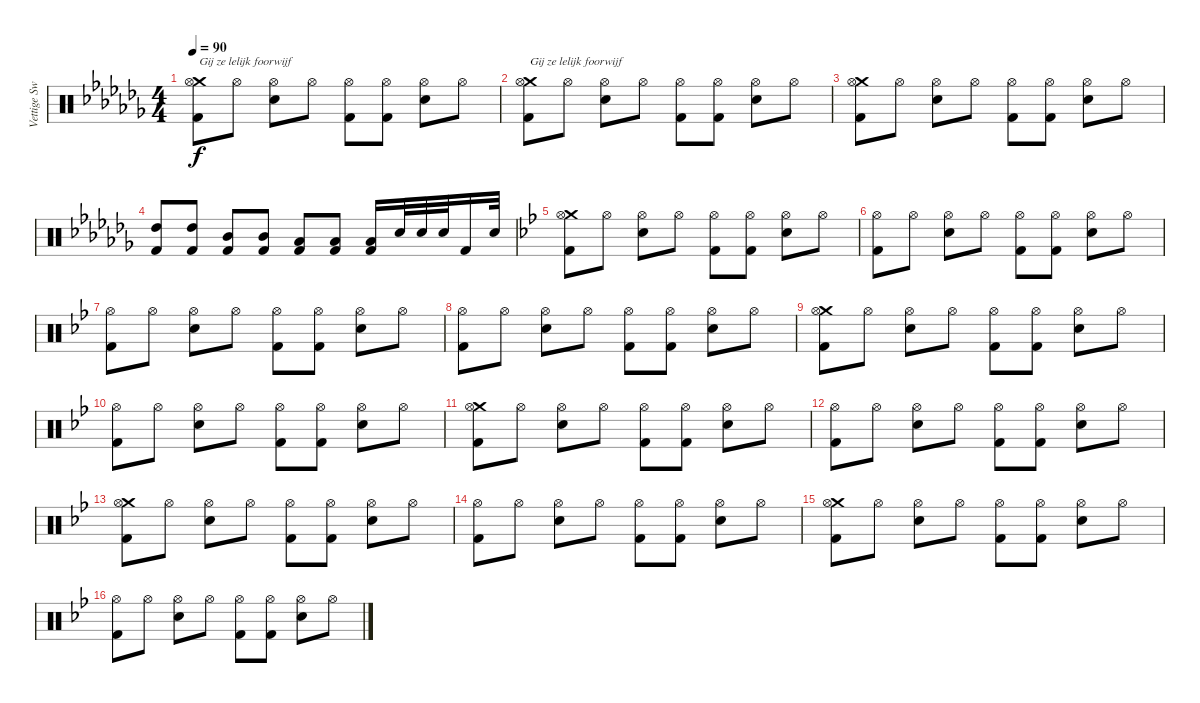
\track ("Vettige Swa" "Vettige Sw") {instrument percussion}
\staff {score}
\articulation defaults
\ts (4 4)
\tempo 90
\clef neutral
\ks abminor
("Kick (hit) 2" "Crash medium (hit)" "Hi-Hat (open)").8{txt "Gij ze lelijk foorwijf" dy f} "Hi-Hat (open)".8 ("Hi-Hat (open)" "Electric Snare (hit)").8 "Hi-Hat (open)".8 ("Hi-Hat (open)" "Kick (hit) 2").8 ("Hi-Hat (open)" "Kick (hit) 2").8 ("Hi-Hat (open)" "Electric Snare (hit)").8 "Hi-Hat (open)".8 |
("Kick (hit) 2" "Crash medium (hit)" "Hi-Hat (open)").8{txt "Gij ze lelijk foorwijf"} "Hi-Hat (open)".8 ("Hi-Hat (open)" "Electric Snare (hit)").8 "Hi-Hat (open)".8 ("Hi-Hat (open)" "Kick (hit) 2").8 ("Hi-Hat (open)" "Kick (hit) 2").8 ("Hi-Hat (open)" "Electric Snare (hit)").8 "Hi-Hat (open)".8 |
("Kick (hit) 2" "Crash medium (hit)" "Hi-Hat (open)").8 "Hi-Hat (open)".8 ("Hi-Hat (open)" "Electric Snare (hit)").8 "Hi-Hat (open)".8 ("Hi-Hat (open)" "Kick (hit) 2").8 ("Hi-Hat (open)" "Kick (hit) 2").8 ("Hi-Hat (open)" "Electric Snare (hit)").8 "Hi-Hat (open)".8 |
("Kick (hit) 2" "High Tom (hit)").8 ("Kick (hit) 2" "High Tom (hit)").8 ("Kick (hit) 2" "Mid Tom (hit)").8 ("Kick (hit) 2" "Mid Tom (hit)").8 ("Kick (hit) 2" "Low Tom (hit)").8 ("Kick (hit) 2" "Low Tom (hit)").8 ("Kick (hit) 2" "Low Floor Tom (hit)").16 "Electric Snare (hit)".32 "Electric Snare (hit)".32 "Electric Snare (hit)".32 "Kick (hit) 2".16 "Electric Snare (hit)".32 |
\ks gminor
("Kick (hit) 2" "Crash medium (hit)" "Hi-Hat (open)").8 "Hi-Hat (open)".8 ("Hi-Hat (open)" "Electric Snare (hit)").8 "Hi-Hat (open)".8 ("Hi-Hat (open)" "Kick (hit) 2").8 ("Hi-Hat (open)" "Kick (hit) 2").8 ("Hi-Hat (open)" "Electric Snare (hit)").8 "Hi-Hat (open)".8 |
("Kick (hit) 2" "Hi-Hat (open)").8 "Hi-Hat (open)".8 ("Hi-Hat (open)" "Electric Snare (hit)").8 "Hi-Hat (open)".8 ("Hi-Hat (open)" "Kick (hit) 2").8 ("Hi-Hat (open)" "Kick (hit) 2").8 ("Hi-Hat (open)" "Electric Snare (hit)").8 "Hi-Hat (open)".8 |
("Kick (hit) 2" "Hi-Hat (open)").8 "Hi-Hat (open)".8 ("Hi-Hat (open)" "Electric Snare (hit)").8 "Hi-Hat (open)".8 ("Hi-Hat (open)" "Kick (hit) 2").8 ("Hi-Hat (open)" "Kick (hit) 2").8 ("Hi-Hat (open)" "Electric Snare (hit)").8 "Hi-Hat (open)".8 |
("Kick (hit) 2" "Hi-Hat (open)").8 "Hi-Hat (open)".8 ("Hi-Hat (open)" "Electric Snare (hit)").8 "Hi-Hat (open)".8 ("Hi-Hat (open)" "Kick (hit) 2").8 ("Hi-Hat (open)" "Kick (hit) 2").8 ("Hi-Hat (open)" "Electric Snare (hit)").8 "Hi-Hat (open)".8 |
("Kick (hit) 2" "Crash medium (hit)" "Hi-Hat (open)").8 "Hi-Hat (open)".8 ("Hi-Hat (open)" "Electric Snare (hit)").8 "Hi-Hat (open)".8 ("Hi-Hat (open)" "Kick (hit) 2").8 ("Hi-Hat (open)" "Kick (hit) 2").8 ("Hi-Hat (open)" "Electric Snare (hit)").8 "Hi-Hat (open)".8 |
("Kick (hit) 2" "Hi-Hat (open)").8 "Hi-Hat (open)".8 ("Hi-Hat (open)" "Electric Snare (hit)").8 "Hi-Hat (open)".8 ("Hi-Hat (open)" "Kick (hit) 2").8 ("Hi-Hat (open)" "Kick (hit) 2").8 ("Hi-Hat (open)" "Electric Snare (hit)").8 "Hi-Hat (open)".8 |
("Kick (hit) 2" "Crash medium (hit)" "Hi-Hat (open)").8 "Hi-Hat (open)".8 ("Hi-Hat (open)" "Electric Snare (hit)").8 "Hi-Hat (open)".8 ("Hi-Hat (open)" "Kick (hit) 2").8 ("Hi-Hat (open)" "Kick (hit) 2").8 ("Hi-Hat (open)" "Electric Snare (hit)").8 "Hi-Hat (open)".8 |
("Kick (hit) 2" "Hi-Hat (open)").8 "Hi-Hat (open)".8 ("Hi-Hat (open)" "Electric Snare (hit)").8 "Hi-Hat (open)".8 ("Hi-Hat (open)" "Kick (hit) 2").8 ("Hi-Hat (open)" "Kick (hit) 2").8 ("Hi-Hat (open)" "Electric Snare (hit)").8 "Hi-Hat (open)".8 |
("Kick (hit) 2" "Crash medium (hit)" "Hi-Hat (open)").8 "Hi-Hat (open)".8 ("Hi-Hat (open)" "Electric Snare (hit)").8 "Hi-Hat (open)".8 ("Hi-Hat (open)" "Kick (hit) 2").8 ("Hi-Hat (open)" "Kick (hit) 2").8 ("Hi-Hat (open)" "Electric Snare (hit)").8 "Hi-Hat (open)".8 |
("Kick (hit) 2" "Hi-Hat (open)").8 "Hi-Hat (open)".8 ("Hi-Hat (open)" "Electric Snare (hit)").8 "Hi-Hat (open)".8 ("Hi-Hat (open)" "Kick (hit) 2").8 ("Hi-Hat (open)" "Kick (hit) 2").8 ("Hi-Hat (open)" "Electric Snare (hit)").8 "Hi-Hat (open)".8 |
("Kick (hit) 2" "Crash medium (hit)" "Hi-Hat (open)").8 "Hi-Hat (open)".8 ("Hi-Hat (open)" "Electric Snare (hit)").8 "Hi-Hat (open)".8 ("Hi-Hat (open)" "Kick (hit) 2").8 ("Hi-Hat (open)" "Kick (hit) 2").8 ("Hi-Hat (open)" "Electric Snare (hit)").8 "Hi-Hat (open)".8 |
("Kick (hit) 2" "Hi-Hat (open)").8 "Hi-Hat (open)".8 ("Hi-Hat (open)" "Electric Snare (hit)").8 "Hi-Hat (open)".8 ("Hi-Hat (open)" "Kick (hit) 2").8 ("Hi-Hat (open)" "Kick (hit) 2").8 ("Hi-Hat (open)" "Electric Snare (hit)").8 "Hi-Hat (open)".8
